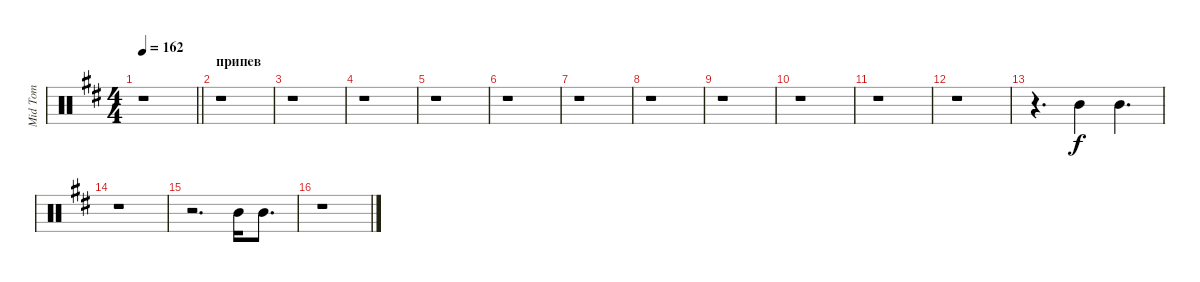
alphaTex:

\track ("Mid Tom" "Mid Tom") {instrument percussion}
\staff {score}
\articulation defaults
\ts (4 4)
\tempo 162
\clef neutral
\barLineRight lightlight
\ks bminor
r.1{dy f} |
\section ("" "припев")
r.1 |
r.1 |
r.1 |
r.1 |
r.1 |
r.1 |
r.1 |
r.1 |
r.1 |
r.1 |
r.1 |
r.4{d} "Mid Tom (hit)".4 "Mid Tom (hit)".4{d} |
r.1 |
r.2{d} "Mid Tom (hit)".16 "Mid Tom (hit)".8{d} |
r.1
